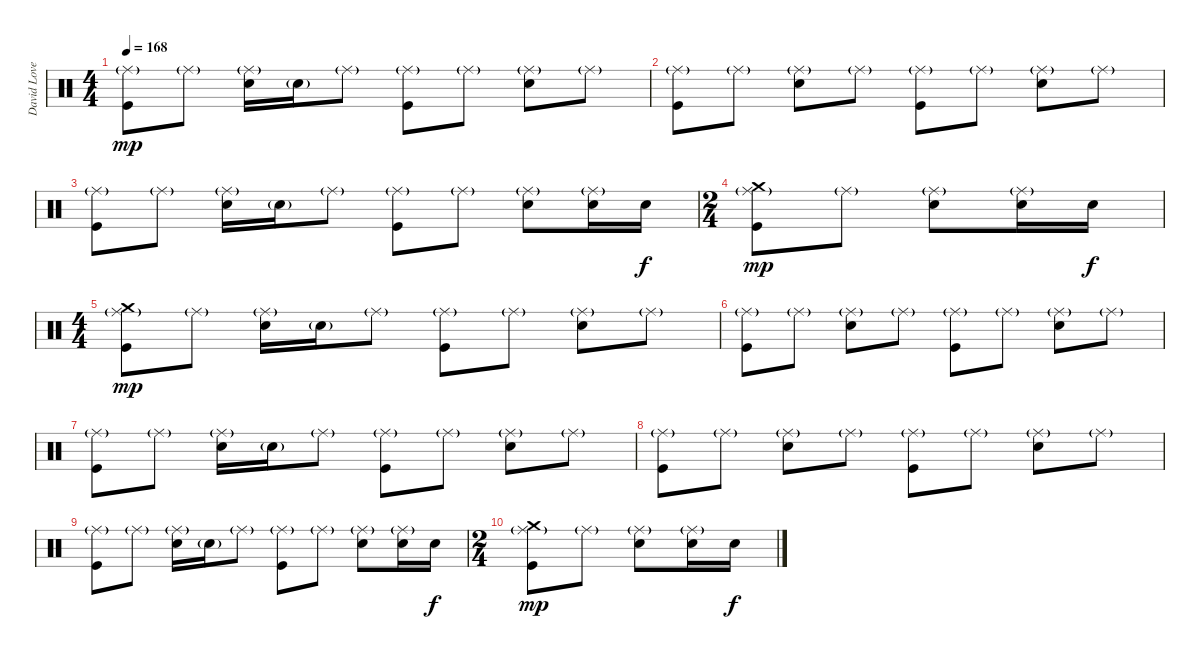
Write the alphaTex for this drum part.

\track ("David Lovering" "David Love") {instrument percussion}
\staff {score}
\articulation defaults
\ts (4 4)
\tempo 168
\clef neutral
\ks c
("Ride (middle)"{g} "Kick (hit)").8{dy mp} "Ride (middle)"{g}.8 ("Ride (middle)"{g} "Snare (hit) 2").16 "Snare (hit) 2"{g}.16 "Ride (middle)"{g}.8 ("Ride (middle)"{g} "Kick (hit)").8 "Ride (middle)"{g}.8 ("Ride (middle)"{g} "Snare (hit) 2").8 "Ride (middle)"{g}.8 |
("Ride (middle)"{g} "Kick (hit)").8 "Ride (middle)"{g}.8 ("Ride (middle)"{g} "Snare (hit) 2").8 "Ride (middle)"{g}.8 ("Ride (middle)"{g} "Kick (hit)").8 "Ride (middle)"{g}.8 ("Ride (middle)"{g} "Snare (hit) 2").8 "Ride (middle)"{g}.8 |
("Ride (middle)"{g} "Kick (hit)").8 "Ride (middle)"{g}.8 ("Ride (middle)"{g} "Snare (hit) 2").16 "Snare (hit) 2"{g}.16 "Ride (middle)"{g}.8 ("Ride (middle)"{g} "Kick (hit)").8 "Ride (middle)"{g}.8 ("Ride (middle)"{g} "Snare (hit) 2").8 ("Ride (middle)"{g} "Snare (hit) 2").16 "Snare (hit) 2".16{dy f} |
\ts (2 4)
("Ride (middle)"{g} "Crash medium (hit)" "Kick (hit)").8{dy mp} "Ride (middle)"{g}.8 ("Ride (middle)"{g} "Snare (hit) 2").8 ("Ride (middle)"{g} "Snare (hit) 2").16 "Snare (hit) 2".16{dy f} |
\ts (4 4)
("Ride (middle)"{g} "Crash medium (hit)" "Kick (hit)").8{dy mp} "Ride (middle)"{g}.8 ("Ride (middle)"{g} "Snare (hit) 2").16 "Snare (hit) 2"{g}.16 "Ride (middle)"{g}.8 ("Ride (middle)"{g} "Kick (hit)").8 "Ride (middle)"{g}.8 ("Ride (middle)"{g} "Snare (hit) 2").8 "Ride (middle)"{g}.8 |
("Ride (middle)"{g} "Kick (hit)").8 "Ride (middle)"{g}.8 ("Ride (middle)"{g} "Snare (hit) 2").8 "Ride (middle)"{g}.8 ("Ride (middle)"{g} "Kick (hit)").8 "Ride (middle)"{g}.8 ("Ride (middle)"{g} "Snare (hit) 2").8 "Ride (middle)"{g}.8 |
("Ride (middle)"{g} "Kick (hit)").8 "Ride (middle)"{g}.8 ("Ride (middle)"{g} "Snare (hit) 2").16 "Snare (hit) 2"{g}.16 "Ride (middle)"{g}.8 ("Ride (middle)"{g} "Kick (hit)").8 "Ride (middle)"{g}.8 ("Ride (middle)"{g} "Snare (hit) 2").8 "Ride (middle)"{g}.8 |
("Ride (middle)"{g} "Kick (hit)").8 "Ride (middle)"{g}.8 ("Ride (middle)"{g} "Snare (hit) 2").8 "Ride (middle)"{g}.8 ("Ride (middle)"{g} "Kick (hit)").8 "Ride (middle)"{g}.8 ("Ride (middle)"{g} "Snare (hit) 2").8 "Ride (middle)"{g}.8 |
("Ride (middle)"{g} "Kick (hit)").8 "Ride (middle)"{g}.8 ("Ride (middle)"{g} "Snare (hit) 2").16 "Snare (hit) 2"{g}.16 "Ride (middle)"{g}.8 ("Ride (middle)"{g} "Kick (hit)").8 "Ride (middle)"{g}.8 ("Ride (middle)"{g} "Snare (hit) 2").8 ("Ride (middle)"{g} "Snare (hit) 2").16 "Snare (hit) 2".16{dy f} |
\ts (2 4)
("Ride (middle)"{g} "Crash medium (hit)" "Kick (hit)").8{dy mp} "Ride (middle)"{g}.8 ("Ride (middle)"{g} "Snare (hit) 2").8 ("Ride (middle)"{g} "Snare (hit) 2").16 "Snare (hit) 2".16{dy f}
